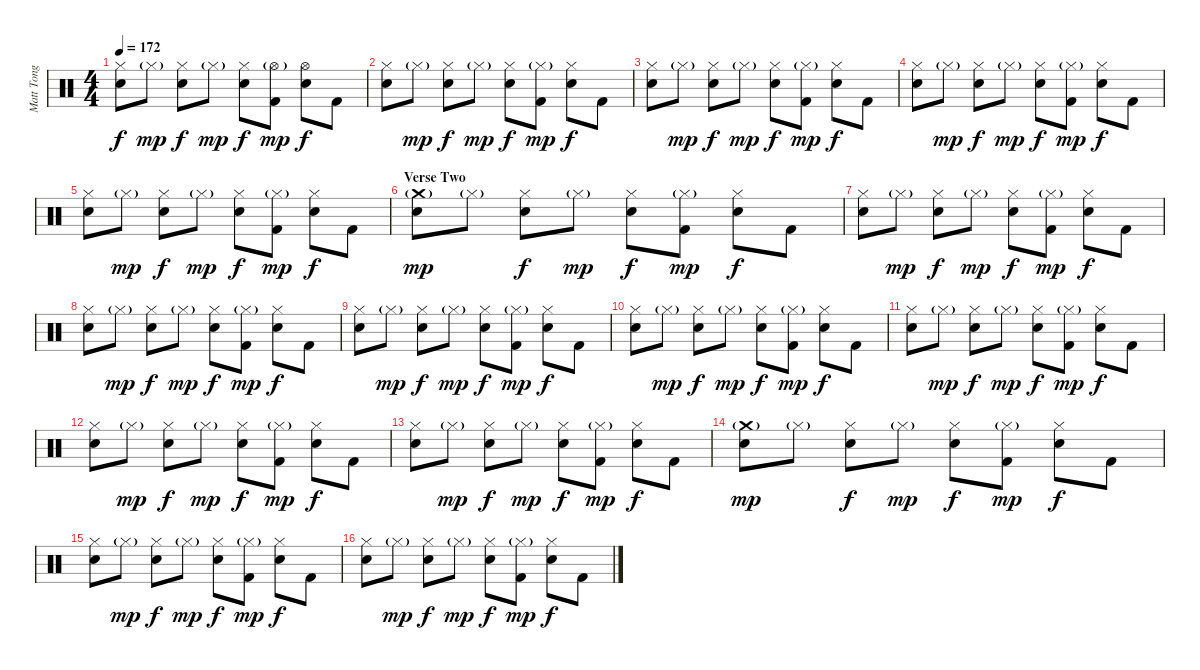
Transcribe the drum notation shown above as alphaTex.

\track ("Matt Tong" "Matt Tong") {instrument percussion}
\staff {score}
\articulation defaults
\ts (4 4)
\tempo 172
\clef neutral
\ks c
("Hi-Hat (closed)" "Snare (hit) 2").8{dy f} "Hi-Hat (closed)"{g}.8{dy mp} ("Hi-Hat (closed)" "Snare (hit) 2").8{dy f} "Hi-Hat (closed)"{g}.8{dy mp} ("Hi-Hat (closed)" "Snare (hit) 2").8{dy f} ("Hi-Hat (open)"{g} "Kick (hit) 2").8{dy mp} ("Hi-Hat (open)" "Snare (hit) 2").8{dy f} "Kick (hit) 2".8 |
("Hi-Hat (closed)" "Snare (hit) 2").8 "Hi-Hat (closed)"{g}.8{dy mp} ("Hi-Hat (closed)" "Snare (hit) 2").8{dy f} "Hi-Hat (closed)"{g}.8{dy mp} ("Hi-Hat (closed)" "Snare (hit) 2").8{dy f} ("Hi-Hat (closed)"{g} "Kick (hit) 2").8{dy mp} ("Hi-Hat (closed)" "Snare (hit) 2").8{dy f} "Kick (hit) 2".8 |
("Hi-Hat (closed)" "Snare (hit) 2").8 "Hi-Hat (closed)"{g}.8{dy mp} ("Hi-Hat (closed)" "Snare (hit) 2").8{dy f} "Hi-Hat (closed)"{g}.8{dy mp} ("Hi-Hat (closed)" "Snare (hit) 2").8{dy f} ("Hi-Hat (closed)"{g} "Kick (hit) 2").8{dy mp} ("Hi-Hat (closed)" "Snare (hit) 2").8{dy f} "Kick (hit) 2".8 |
("Hi-Hat (closed)" "Snare (hit) 2").8 "Hi-Hat (closed)"{g}.8{dy mp} ("Hi-Hat (closed)" "Snare (hit) 2").8{dy f} "Hi-Hat (closed)"{g}.8{dy mp} ("Hi-Hat (closed)" "Snare (hit) 2").8{dy f} ("Hi-Hat (closed)"{g} "Kick (hit) 2").8{dy mp} ("Hi-Hat (closed)" "Snare (hit) 2").8{dy f} "Kick (hit) 2".8 |
("Hi-Hat (closed)" "Snare (hit) 2").8 "Hi-Hat (closed)"{g}.8{dy mp} ("Hi-Hat (closed)" "Snare (hit) 2").8{dy f} "Hi-Hat (closed)"{g}.8{dy mp} ("Hi-Hat (closed)" "Snare (hit) 2").8{dy f} ("Hi-Hat (closed)"{g} "Kick (hit) 2").8{dy mp} ("Hi-Hat (closed)" "Snare (hit) 2").8{dy f} "Kick (hit) 2".8 |
\section ("" "Verse Two")
("Crash medium (hit)"{g} "Snare (hit) 2").8{dy mp} "Hi-Hat (closed)"{g}.8 ("Hi-Hat (closed)" "Snare (hit) 2").8{dy f} "Hi-Hat (closed)"{g}.8{dy mp} ("Hi-Hat (closed)" "Snare (hit) 2").8{dy f} ("Hi-Hat (closed)"{g} "Kick (hit) 2").8{dy mp} ("Hi-Hat (closed)" "Snare (hit) 2").8{dy f} "Kick (hit) 2".8 |
("Hi-Hat (closed)" "Snare (hit) 2").8 "Hi-Hat (closed)"{g}.8{dy mp} ("Hi-Hat (closed)" "Snare (hit) 2").8{dy f} "Hi-Hat (closed)"{g}.8{dy mp} ("Hi-Hat (closed)" "Snare (hit) 2").8{dy f} ("Hi-Hat (closed)"{g} "Kick (hit) 2").8{dy mp} ("Hi-Hat (closed)" "Snare (hit) 2").8{dy f} "Kick (hit) 2".8 |
("Hi-Hat (closed)" "Snare (hit) 2").8 "Hi-Hat (closed)"{g}.8{dy mp} ("Hi-Hat (closed)" "Snare (hit) 2").8{dy f} "Hi-Hat (closed)"{g}.8{dy mp} ("Hi-Hat (closed)" "Snare (hit) 2").8{dy f} ("Hi-Hat (closed)"{g} "Kick (hit) 2").8{dy mp} ("Hi-Hat (closed)" "Snare (hit) 2").8{dy f} "Kick (hit) 2".8 |
("Hi-Hat (closed)" "Snare (hit) 2").8 "Hi-Hat (closed)"{g}.8{dy mp} ("Hi-Hat (closed)" "Snare (hit) 2").8{dy f} "Hi-Hat (closed)"{g}.8{dy mp} ("Hi-Hat (closed)" "Snare (hit) 2").8{dy f} ("Hi-Hat (closed)"{g} "Kick (hit) 2").8{dy mp} ("Hi-Hat (closed)" "Snare (hit) 2").8{dy f} "Kick (hit) 2".8 |
("Hi-Hat (closed)" "Snare (hit) 2").8 "Hi-Hat (closed)"{g}.8{dy mp} ("Hi-Hat (closed)" "Snare (hit) 2").8{dy f} "Hi-Hat (closed)"{g}.8{dy mp} ("Hi-Hat (closed)" "Snare (hit) 2").8{dy f} ("Hi-Hat (closed)"{g} "Kick (hit) 2").8{dy mp} ("Hi-Hat (closed)" "Snare (hit) 2").8{dy f} "Kick (hit) 2".8 |
("Hi-Hat (closed)" "Snare (hit) 2").8 "Hi-Hat (closed)"{g}.8{dy mp} ("Hi-Hat (closed)" "Snare (hit) 2").8{dy f} "Hi-Hat (closed)"{g}.8{dy mp} ("Hi-Hat (closed)" "Snare (hit) 2").8{dy f} ("Hi-Hat (closed)"{g} "Kick (hit) 2").8{dy mp} ("Hi-Hat (closed)" "Snare (hit) 2").8{dy f} "Kick (hit) 2".8 |
("Hi-Hat (closed)" "Snare (hit) 2").8 "Hi-Hat (closed)"{g}.8{dy mp} ("Hi-Hat (closed)" "Snare (hit) 2").8{dy f} "Hi-Hat (closed)"{g}.8{dy mp} ("Hi-Hat (closed)" "Snare (hit) 2").8{dy f} ("Hi-Hat (closed)"{g} "Kick (hit) 2").8{dy mp} ("Hi-Hat (closed)" "Snare (hit) 2").8{dy f} "Kick (hit) 2".8 |
("Hi-Hat (closed)" "Snare (hit) 2").8 "Hi-Hat (closed)"{g}.8{dy mp} ("Hi-Hat (closed)" "Snare (hit) 2").8{dy f} "Hi-Hat (closed)"{g}.8{dy mp} ("Hi-Hat (closed)" "Snare (hit) 2").8{dy f} ("Hi-Hat (closed)"{g} "Kick (hit) 2").8{dy mp} ("Hi-Hat (closed)" "Snare (hit) 2").8{dy f} "Kick (hit) 2".8 |
("Crash medium (hit)"{g} "Snare (hit) 2").8{dy mp} "Hi-Hat (closed)"{g}.8 ("Hi-Hat (closed)" "Snare (hit) 2").8{dy f} "Hi-Hat (closed)"{g}.8{dy mp} ("Hi-Hat (closed)" "Snare (hit) 2").8{dy f} ("Hi-Hat (closed)"{g} "Kick (hit) 2").8{dy mp} ("Hi-Hat (closed)" "Snare (hit) 2").8{dy f} "Kick (hit) 2".8 |
("Hi-Hat (closed)" "Snare (hit) 2").8 "Hi-Hat (closed)"{g}.8{dy mp} ("Hi-Hat (closed)" "Snare (hit) 2").8{dy f} "Hi-Hat (closed)"{g}.8{dy mp} ("Hi-Hat (closed)" "Snare (hit) 2").8{dy f} ("Hi-Hat (closed)"{g} "Kick (hit) 2").8{dy mp} ("Hi-Hat (closed)" "Snare (hit) 2").8{dy f} "Kick (hit) 2".8 |
("Hi-Hat (closed)" "Snare (hit) 2").8 "Hi-Hat (closed)"{g}.8{dy mp} ("Hi-Hat (closed)" "Snare (hit) 2").8{dy f} "Hi-Hat (closed)"{g}.8{dy mp} ("Hi-Hat (closed)" "Snare (hit) 2").8{dy f} ("Hi-Hat (closed)"{g} "Kick (hit) 2").8{dy mp} ("Hi-Hat (closed)" "Snare (hit) 2").8{dy f} "Kick (hit) 2".8
